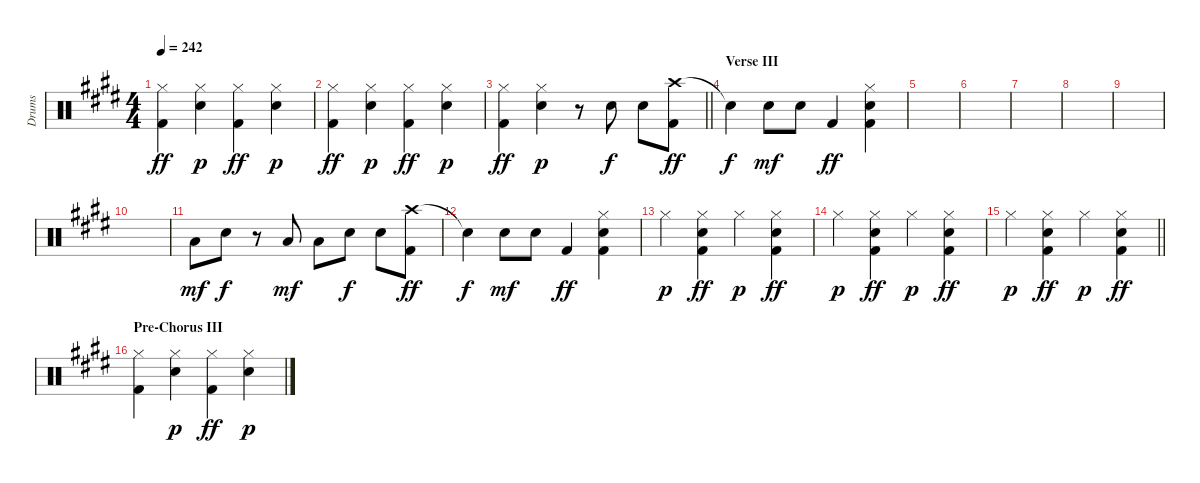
\track ("Drums" "Drums") {instrument percussion}
\staff {score}
\articulation defaults
\ts (4 4)
\tempo 242
\clef neutral
\ks e
("Hi-Hat (closed)" "Kick (hit) 2").4{dy ff} ("Hi-Hat (closed)" "Electric Snare (hit)").4{dy p} ("Hi-Hat (closed)" "Kick (hit) 2").4{dy ff} ("Hi-Hat (closed)" "Electric Snare (hit)").4{dy p} |
("Hi-Hat (closed)" "Kick (hit) 2").4{dy ff} ("Hi-Hat (closed)" "Electric Snare (hit)").4{dy p} ("Hi-Hat (closed)" "Kick (hit) 2").4{dy ff} ("Hi-Hat (closed)" "Electric Snare (hit)").4{dy p} |
\barLineRight lightlight
("Hi-Hat (closed)" "Kick (hit) 2").4{dy ff} ("Hi-Hat (closed)" "Electric Snare (hit)").4{dy p} r.8 "Electric Snare (hit)".8{dy f} "Electric Snare (hit)".8 ("Crash high (hit)" "Kick (hit) 2").8{dy ff} |
\section ("" "Verse III")
"Snare (hit)"{t}.4{dy f} "Electric Snare (hit)".8{dy mf} "Electric Snare (hit)".8 "Kick (hit) 2".4{dy ff} ("Hi-Hat (closed)" "Electric Snare (hit)" "Kick (hit) 2").4 |
|
|
|
|
|
|
"Low Tom (hit)".8{dy mf} "Electric Snare (hit)".8{dy f} r.8 "Low Tom (hit)".8{dy mf} "Low Tom (hit)".8 "Electric Snare (hit)".8{dy f} "Electric Snare (hit)".8 ("Crash high (hit)" "Kick (hit) 2").8{dy ff} |
"Snare (hit)"{t}.4{dy f} "Electric Snare (hit)".8{dy mf} "Electric Snare (hit)".8 "Kick (hit) 2".4{dy ff} ("Hi-Hat (closed)" "Electric Snare (hit)" "Kick (hit) 2").4 |
"Hi-Hat (closed)".4{dy p} ("Hi-Hat (closed)" "Electric Snare (hit)" "Kick (hit) 2").4{dy ff} "Hi-Hat (closed)".4{dy p} ("Hi-Hat (closed)" "Electric Snare (hit)" "Kick (hit) 2").4{dy ff} |
"Hi-Hat (closed)".4{dy p} ("Hi-Hat (closed)" "Electric Snare (hit)" "Kick (hit) 2").4{dy ff} "Hi-Hat (closed)".4{dy p} ("Hi-Hat (closed)" "Electric Snare (hit)" "Kick (hit) 2").4{dy ff} |
\barLineRight lightlight "Hi-Hat (closed)".4{dy p}
("Hi-Hat (closed)" "Electric Snare (hit)" "Kick (hit) 2").4{dy ff} "Hi-Hat (closed)".4{dy p} ("Hi-Hat (closed)" "Electric Snare (hit)" "Kick (hit) 2").4{dy ff} |
\section ("" "Pre-Chorus III")
("Hi-Hat (closed)" "Kick (hit) 2").4 ("Hi-Hat (closed)" "Electric Snare (hit)").4{dy p} ("Hi-Hat (closed)" "Kick (hit) 2").4{dy ff} ("Hi-Hat (closed)" "Electric Snare (hit)").4{dy p}
